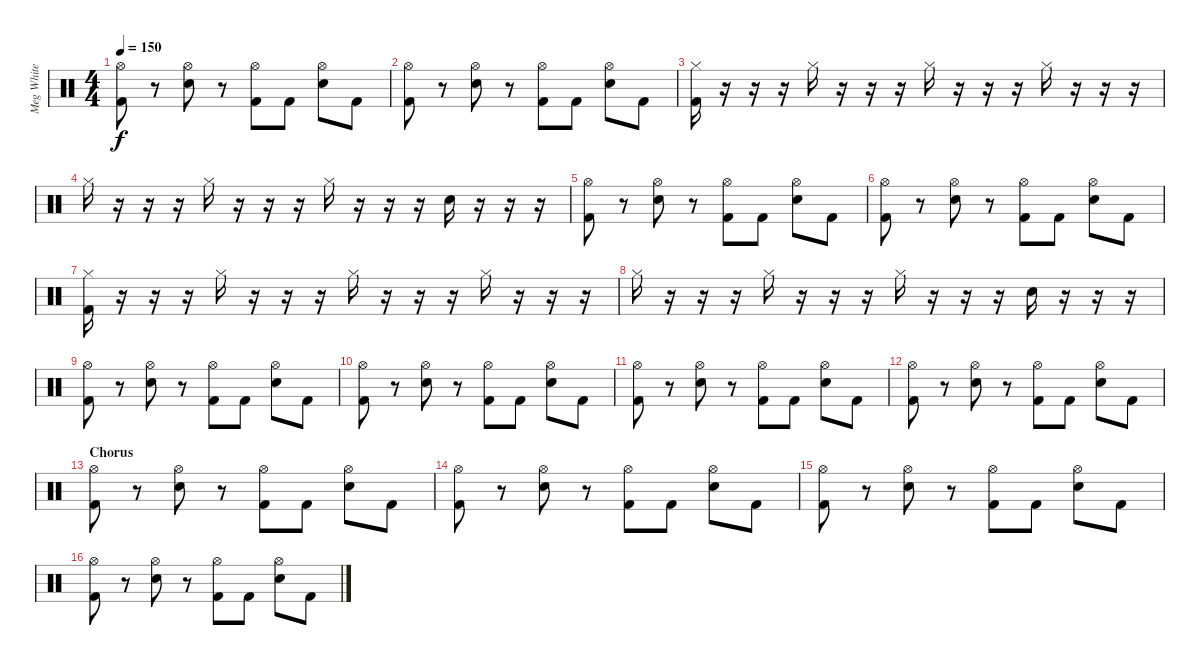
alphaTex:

\track ("Meg White - Drums" "Meg White ") {instrument percussion}
\staff {score}
\articulation defaults
\ts (4 4)
\tempo 150
\clef neutral
\ks c
("Hi-Hat (open)" "Kick (hit) 2").8{dy f} r.8 ("Hi-Hat (open)" "Electric Snare (hit)").8 r.8 ("Hi-Hat (open)" "Kick (hit) 2").8 "Kick (hit) 2".8 ("Hi-Hat (open)" "Electric Snare (hit)").8 "Kick (hit) 2".8 |
("Hi-Hat (open)" "Kick (hit) 2").8 r.8 ("Hi-Hat (open)" "Electric Snare (hit)").8 r.8 ("Hi-Hat (open)" "Kick (hit) 2").8 "Kick (hit) 2".8 ("Hi-Hat (open)" "Electric Snare (hit)").8 "Kick (hit) 2".8 |
("Hi-Hat (closed)" "Kick (hit) 2").16 r.16 r.16 r.16 "Hi-Hat (closed)".16 r.16 r.16 r.16 "Hi-Hat (closed)".16 r.16 r.16 r.16 "Hi-Hat (closed)".16 r.16 r.16 r.16 |
"Hi-Hat (closed)".16 r.16 r.16 r.16 "Hi-Hat (closed)".16 r.16 r.16 r.16 "Hi-Hat (closed)".16 r.16 r.16 r.16 "Electric Snare (hit)".16 r.16 r.16 r.16 |
("Hi-Hat (open)" "Kick (hit) 2").8 r.8 ("Hi-Hat (open)" "Electric Snare (hit)").8 r.8 ("Hi-Hat (open)" "Kick (hit) 2").8 "Kick (hit) 2".8 ("Hi-Hat (open)" "Electric Snare (hit)").8 "Kick (hit) 2".8 |
("Hi-Hat (open)" "Kick (hit) 2").8 r.8 ("Hi-Hat (open)" "Electric Snare (hit)").8 r.8 ("Hi-Hat (open)" "Kick (hit) 2").8 "Kick (hit) 2".8 ("Hi-Hat (open)" "Electric Snare (hit)").8 "Kick (hit) 2".8 |
("Hi-Hat (closed)" "Kick (hit) 2").16 r.16 r.16 r.16 "Hi-Hat (closed)".16 r.16 r.16 r.16 "Hi-Hat (closed)".16 r.16 r.16 r.16 "Hi-Hat (closed)".16 r.16 r.16 r.16 |
"Hi-Hat (closed)".16 r.16 r.16 r.16 "Hi-Hat (closed)".16 r.16 r.16 r.16 "Hi-Hat (closed)".16 r.16 r.16 r.16 "Electric Snare (hit)".16 r.16 r.16 r.16 |
("Hi-Hat (open)" "Kick (hit) 2").8 r.8 ("Hi-Hat (open)" "Electric Snare (hit)").8 r.8 ("Hi-Hat (open)" "Kick (hit) 2").8 "Kick (hit) 2".8 ("Hi-Hat (open)" "Electric Snare (hit)").8 "Kick (hit) 2".8 |
("Hi-Hat (open)" "Kick (hit) 2").8 r.8 ("Hi-Hat (open)" "Electric Snare (hit)").8 r.8 ("Hi-Hat (open)" "Kick (hit) 2").8 "Kick (hit) 2".8 ("Hi-Hat (open)" "Electric Snare (hit)").8 "Kick (hit) 2".8 |
("Hi-Hat (open)" "Kick (hit) 2").8 r.8 ("Hi-Hat (open)" "Electric Snare (hit)").8 r.8 ("Hi-Hat (open)" "Kick (hit) 2").8 "Kick (hit) 2".8 ("Hi-Hat (open)" "Electric Snare (hit)").8 "Kick (hit) 2".8 |
("Hi-Hat (open)" "Kick (hit) 2").8 r.8 ("Hi-Hat (open)" "Electric Snare (hit)").8 r.8 ("Hi-Hat (open)" "Kick (hit) 2").8 "Kick (hit) 2".8 ("Hi-Hat (open)" "Electric Snare (hit)").8 "Kick (hit) 2".8 |
\section ("" "Chorus")
("Hi-Hat (open)" "Kick (hit) 2").8 r.8 ("Hi-Hat (open)" "Electric Snare (hit)").8 r.8 ("Hi-Hat (open)" "Kick (hit) 2").8 "Kick (hit) 2".8 ("Hi-Hat (open)" "Electric Snare (hit)").8 "Kick (hit) 2".8 |
("Hi-Hat (open)" "Kick (hit) 2").8 r.8 ("Hi-Hat (open)" "Electric Snare (hit)").8 r.8 ("Hi-Hat (open)" "Kick (hit) 2").8 "Kick (hit) 2".8 ("Hi-Hat (open)" "Electric Snare (hit)").8 "Kick (hit) 2".8 |
("Hi-Hat (open)" "Kick (hit) 2").8 r.8 ("Hi-Hat (open)" "Electric Snare (hit)").8 r.8 ("Hi-Hat (open)" "Kick (hit) 2").8 "Kick (hit) 2".8 ("Hi-Hat (open)" "Electric Snare (hit)").8 "Kick (hit) 2".8 |
("Hi-Hat (open)" "Kick (hit) 2").8 r.8 ("Hi-Hat (open)" "Electric Snare (hit)").8 r.8 ("Hi-Hat (open)" "Kick (hit) 2").8 "Kick (hit) 2".8 ("Hi-Hat (open)" "Electric Snare (hit)").8 "Kick (hit) 2".8
